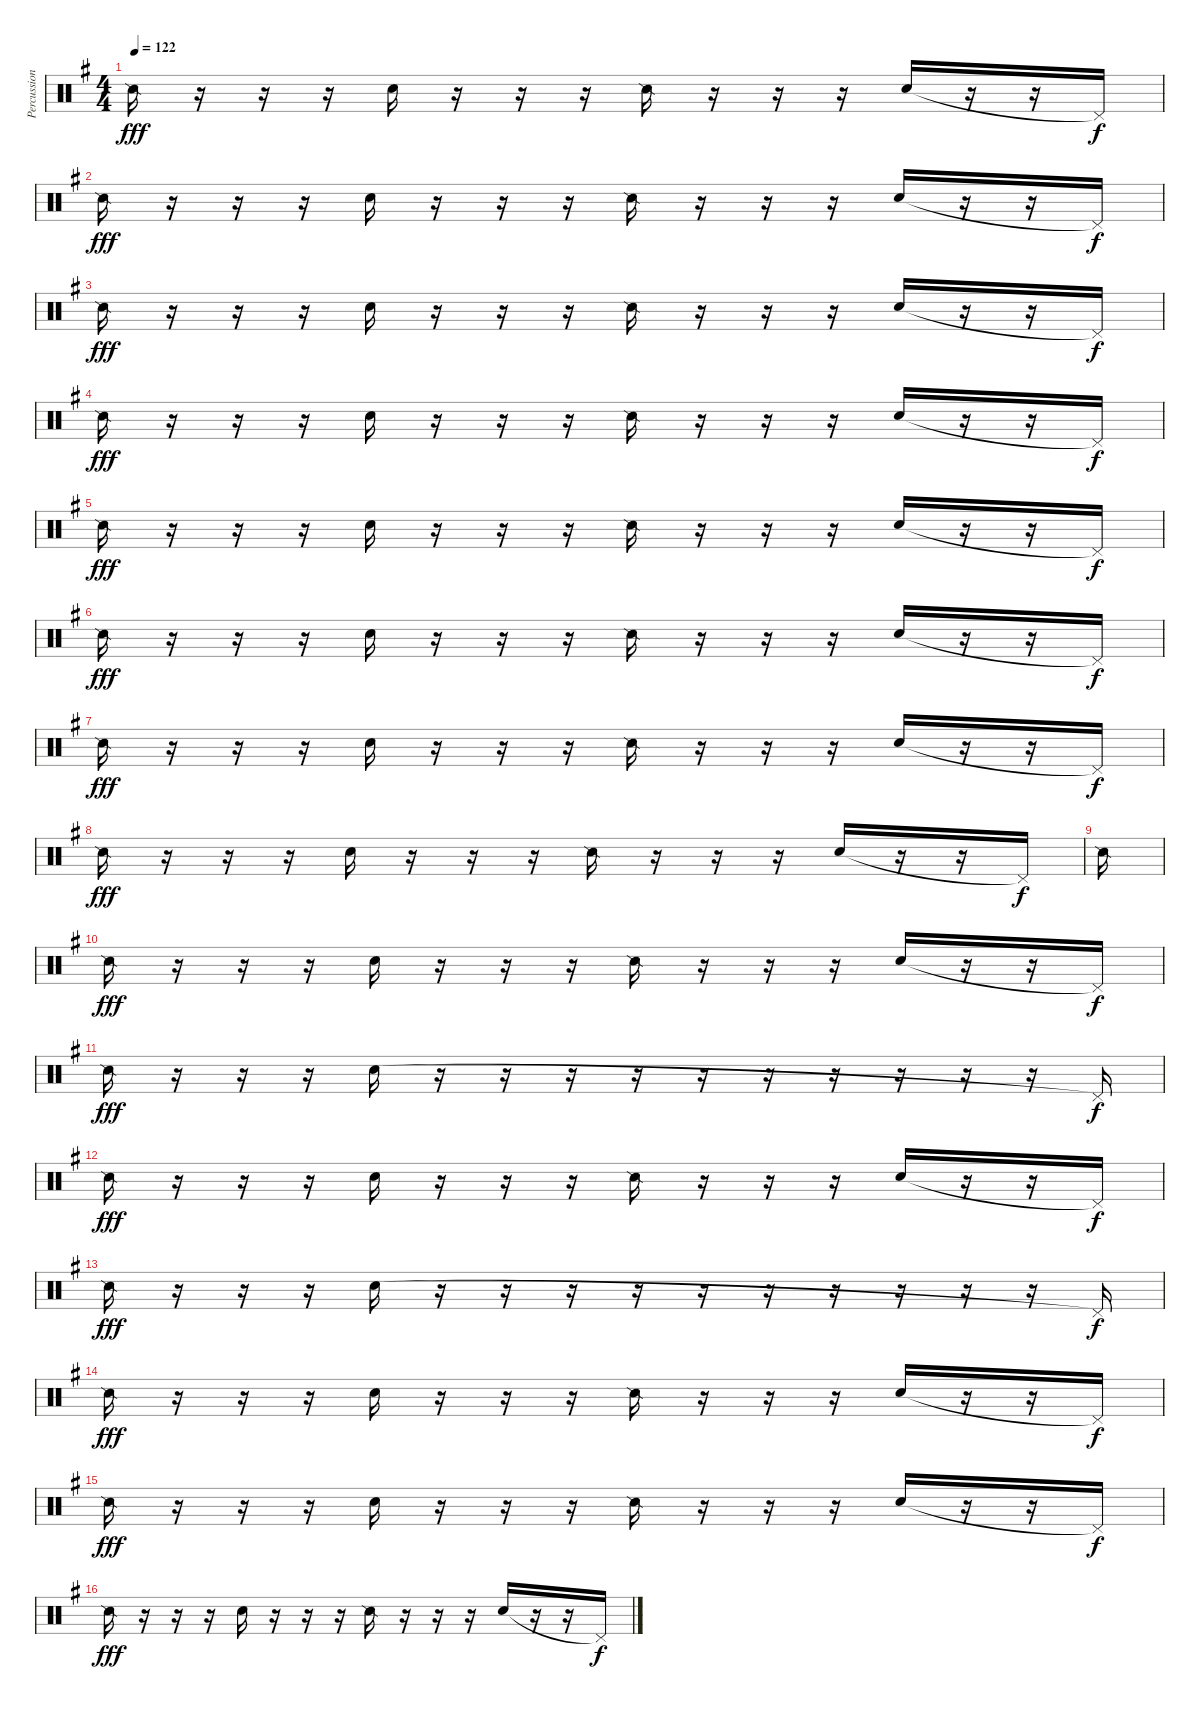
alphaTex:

\track ("Percussion" "Percussion") {instrument percussion}
\staff {score}
\articulation defaults
\ts (4 4)
\tempo 122
\clef neutral
\ks g "Snare (side stick) 2".16{dy fff}
r.16 r.16 r.16 "Hand Clap (hit)".16 r.16 r.16 r.16 "Snare (side stick) 2".16 r.16 r.16 r.16 "Hand Clap (hit)".16 r.16 r.16 "Pedal Hi-Hat (hit)"{t}.16{dy f} |
"Snare (side stick) 2".16{dy fff} r.16 r.16 r.16 "Hand Clap (hit)".16 r.16 r.16 r.16 "Snare (side stick) 2".16 r.16 r.16 r.16 "Hand Clap (hit)".16 r.16 r.16 "Pedal Hi-Hat (hit)"{t}.16{dy f} |
"Snare (side stick) 2".16{dy fff} r.16 r.16 r.16 "Hand Clap (hit)".16 r.16 r.16 r.16 "Snare (side stick) 2".16 r.16 r.16 r.16 "Hand Clap (hit)".16 r.16 r.16 "Pedal Hi-Hat (hit)"{t}.16{dy f} |
"Snare (side stick) 2".16{dy fff} r.16 r.16 r.16 "Hand Clap (hit)".16 r.16 r.16 r.16 "Snare (side stick) 2".16 r.16 r.16 r.16 "Hand Clap (hit)".16 r.16 r.16 "Pedal Hi-Hat (hit)"{t}.16{dy f} |
"Snare (side stick) 2".16{dy fff} r.16 r.16 r.16 "Hand Clap (hit)".16 r.16 r.16 r.16 "Snare (side stick) 2".16 r.16 r.16 r.16 "Hand Clap (hit)".16 r.16 r.16 "Pedal Hi-Hat (hit)"{t}.16{dy f} |
"Snare (side stick) 2".16{dy fff} r.16 r.16 r.16 "Hand Clap (hit)".16 r.16 r.16 r.16 "Snare (side stick) 2".16 r.16 r.16 r.16 "Hand Clap (hit)".16 r.16 r.16 "Pedal Hi-Hat (hit)"{t}.16{dy f} |
"Snare (side stick) 2".16{dy fff} r.16 r.16 r.16 "Hand Clap (hit)".16 r.16 r.16 r.16 "Snare (side stick) 2".16 r.16 r.16 r.16 "Hand Clap (hit)".16 r.16 r.16 "Pedal Hi-Hat (hit)"{t}.16{dy f} |
"Snare (side stick) 2".16{dy fff} r.16 r.16 r.16 "Hand Clap (hit)".16 r.16 r.16 r.16 "Snare (side stick) 2".16 r.16 r.16 r.16 "Hand Clap (hit)".16 r.16 r.16 "Pedal Hi-Hat (hit)"{t}.16{dy f} |
"Snare (side stick) 2".16 |
"Snare (side stick) 2".16{dy fff} r.16 r.16 r.16 "Hand Clap (hit)".16 r.16 r.16 r.16 "Snare (side stick) 2".16 r.16 r.16 r.16 "Hand Clap (hit)".16 r.16 r.16 "Pedal Hi-Hat (hit)"{t}.16{dy f} |
"Snare (side stick) 2".16{dy fff} r.16 r.16 r.16 "Hand Clap (hit)".16 r.16 r.16 r.16 r.16 r.16 r.16 r.16 r.16 r.16 r.16 "Pedal Hi-Hat (hit)"{t}.16{dy f} |
"Snare (side stick) 2".16{dy fff} r.16 r.16 r.16 "Hand Clap (hit)".16 r.16 r.16 r.16 "Snare (side stick) 2".16 r.16 r.16 r.16 "Hand Clap (hit)".16 r.16 r.16 "Pedal Hi-Hat (hit)"{t}.16{dy f} |
"Snare (side stick) 2".16{dy fff} r.16 r.16 r.16 "Hand Clap (hit)".16 r.16 r.16 r.16 r.16 r.16 r.16 r.16 r.16 r.16 r.16 "Pedal Hi-Hat (hit)"{t}.16{dy f} |
"Snare (side stick) 2".16{dy fff} r.16 r.16 r.16 "Hand Clap (hit)".16 r.16 r.16 r.16 "Snare (side stick) 2".16 r.16 r.16 r.16 "Hand Clap (hit)".16 r.16 r.16 "Pedal Hi-Hat (hit)"{t}.16{dy f} |
"Snare (side stick) 2".16{dy fff} r.16 r.16 r.16 "Hand Clap (hit)".16 r.16 r.16 r.16 "Snare (side stick) 2".16 r.16 r.16 r.16 "Hand Clap (hit)".16 r.16 r.16 "Pedal Hi-Hat (hit)"{t}.16{dy f} |
"Snare (side stick) 2".16{dy fff} r.16 r.16 r.16 "Hand Clap (hit)".16 r.16 r.16 r.16 "Snare (side stick) 2".16 r.16 r.16 r.16 "Hand Clap (hit)".16 r.16 r.16 "Pedal Hi-Hat (hit)"{t}.16{dy f}
